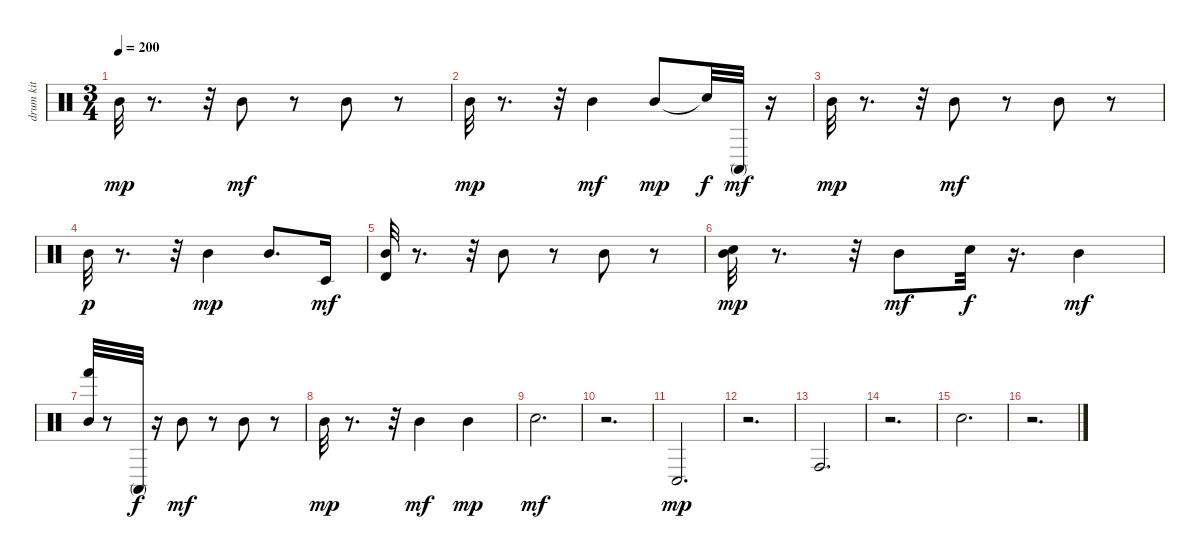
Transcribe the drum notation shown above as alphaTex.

\track (" drum kit (hi-hat/cymbals)" " drum kit ") {instrument percussion}
\staff {score}
\articulation defaults
\ts (3 4)
\tempo 200
\clef neutral
\ks c "Mid Tom (hit)".32{dy mp}
r.8{d} r.32 "Mid Tom (hit)".8{dy mf} r.8 "Mid Tom (hit)".8 r.8 |
"Mid Tom (hit)".32{dy mp} r.8{d} r.32 "Mid Tom (hit)".4{dy mf} "Mid Tom (hit)".8{dy mp} "Snare (hit)"{t}.32{dy f} "Conga high (mute)".32{dy mf} r.16 |
"Mid Tom (hit)".32{dy mp} r.8{d} r.32 "Mid Tom (hit)".8{dy mf} r.8 "Mid Tom (hit)".8 r.8 |
"Mid Tom (hit)".32{dy p} r.8{d} r.32 "Mid Tom (hit)".4{dy mp} "Mid Tom (hit)".8{d} "Timbale low (hit)".16{dy mf} |
("Mid Tom (hit)" "Timbale high (hit)").32 r.8{d} r.32 "Mid Tom (hit)".8 r.8 "Mid Tom (hit)".8 r.8 |
("Mid Tom (hit)" "Snare (hit)").32{dy mp} r.8{d} r.32 "Mid Tom (hit)".8{dy mf} "Snare (hit)".32{dy f} r.16{d} "Mid Tom (hit)".4{dy mf} |
("Mid Tom (hit)" "Hand (hit)").32 r.8 "Conga high (mute)".32{dy f} r.16 "Mid Tom (hit)".8{dy mf} r.8 "Mid Tom (hit)".8 r.8 |
"Mid Tom (hit)".32{dy mp} r.8{d} r.32 "Mid Tom (hit)".4{dy mf} "Mid Tom (hit)".4{dy mp} |
"Snare (hit)".2{d dy mf} |
r.2{d} |
"Conga low (hit)".2{d dy mp} |
r.2{d} |
"Conga high (hit)".2{d} |
r.2{d} |
"Snare (hit)".2{d} |
r.2{d}
